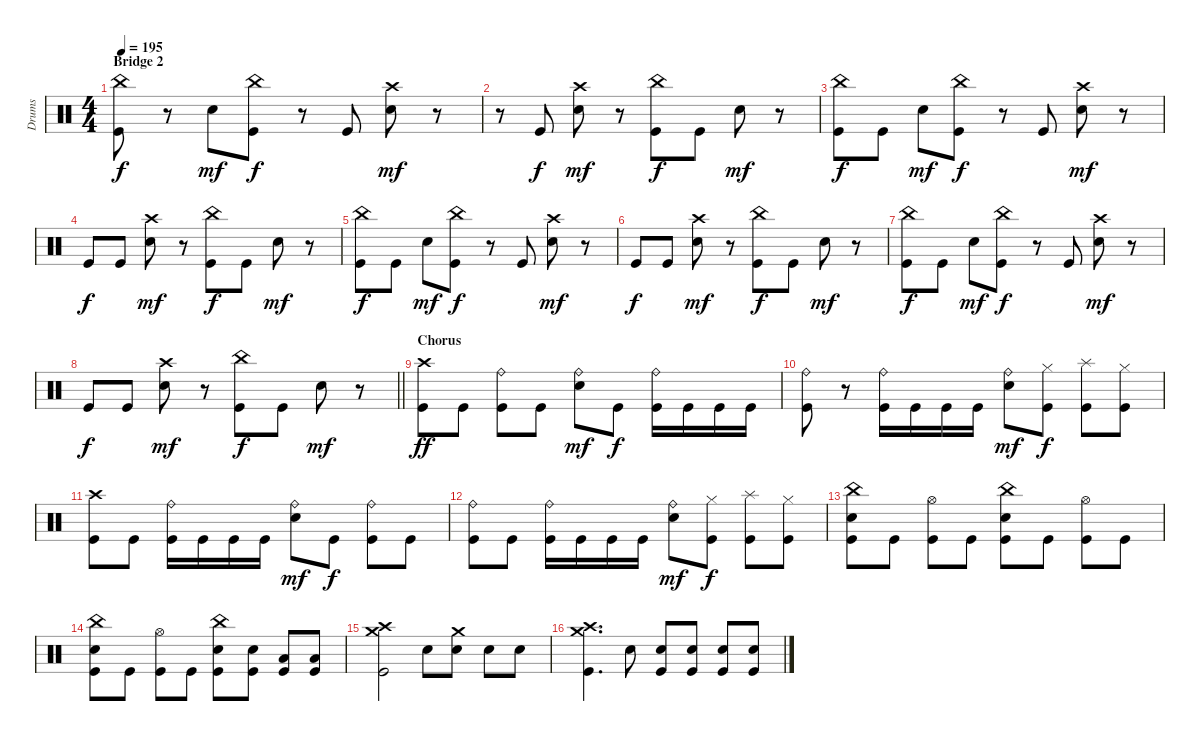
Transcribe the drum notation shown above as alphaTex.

\track ("Drums" "Drums") {instrument percussion}
\staff {score}
\articulation defaults
\ts (4 4)
\section ("" "Bridge 2")
\tempo 195
\clef neutral
\ks c
("China (hit)" "Kick (hit)").8{dy f} r.8 "Snare (hit) 2".8{dy mf} ("China (hit)" "Kick (hit)").8{dy f} r.8 "Kick (hit)".8 ("Crash high (hit)" "Snare (hit) 2").8{dy mf} r.8 |
r.8 "Kick (hit)".8{dy f} ("Crash high (hit)" "Snare (hit) 2").8{dy mf} r.8 ("China (hit)" "Kick (hit)").8{dy f} "Kick (hit)".8 "Snare (hit) 2".8{dy mf} r.8 |
("China (hit)" "Kick (hit)").8{dy f} "Kick (hit)".8 "Snare (hit) 2".8{dy mf} ("China (hit)" "Kick (hit)").8{dy f} r.8 "Kick (hit)".8 ("Crash high (hit)" "Snare (hit) 2").8{dy mf} r.8 |
"Kick (hit)".8{dy f} "Kick (hit)".8 ("Crash high (hit)" "Snare (hit) 2").8{dy mf} r.8 ("China (hit)" "Kick (hit)").8{dy f} "Kick (hit)".8 "Snare (hit) 2".8{dy mf} r.8 |
("China (hit)" "Kick (hit)").8{dy f} "Kick (hit)".8 "Snare (hit) 2".8{dy mf} ("China (hit)" "Kick (hit)").8{dy f} r.8 "Kick (hit)".8 ("Crash high (hit)" "Snare (hit) 2").8{dy mf} r.8 |
"Kick (hit)".8{dy f} "Kick (hit)".8 ("Crash high (hit)" "Snare (hit) 2").8{dy mf} r.8 ("China (hit)" "Kick (hit)").8{dy f} "Kick (hit)".8 "Snare (hit) 2".8{dy mf} r.8 |
("China (hit)" "Kick (hit)").8{dy f} "Kick (hit)".8 "Snare (hit) 2".8{dy mf} ("China (hit)" "Kick (hit)").8{dy f} r.8 "Kick (hit)".8 ("Crash high (hit)" "Snare (hit) 2").8{dy mf} r.8 |
\barLineRight lightlight "Kick (hit)".8{dy f} "Kick (hit)".8
("Crash high (hit)" "Snare (hit) 2").8{dy mf} r.8 ("China (hit)" "Kick (hit)").8{dy f} "Kick (hit)".8 "Snare (hit) 2".8{dy mf} r.8 |
\section ("" "Chorus")
("Crash high (hit)" "Kick (hit)").8{dy ff} "Kick (hit)".8 ("Ride (bell)" "Kick (hit)").8 "Kick (hit)".8 ("Ride (bell)" "Snare (hit) 2").8{dy mf} "Kick (hit)".8{dy f} ("Ride (bell)" "Kick (hit)").16 "Kick (hit)".16 "Kick (hit)".16 "Kick (hit)".16 |
("Ride (bell)" "Kick (hit)").8 r.8 ("Ride (bell)" "Kick (hit)").16 "Kick (hit)".16 "Kick (hit)".16 "Kick (hit)".16 ("Ride (bell)" "Snare (hit) 2").8{dy mf} ("Hi-Hat (closed)" "Kick (hit)").8{dy f} ("Splash (hit)" "Kick (hit)").8 ("Hi-Hat (closed)" "Kick (hit)").8 |
("Crash high (hit)" "Kick (hit)").8 "Kick (hit)".8 ("Ride (bell)" "Kick (hit)").16 "Kick (hit)".16 "Kick (hit)".16 "Kick (hit)".16 ("Ride (bell)" "Snare (hit) 2").8{dy mf} "Kick (hit)".8{dy f} ("Ride (bell)" "Kick (hit)").8 "Kick (hit)".8 |
("Ride (bell)" "Kick (hit)").8 "Kick (hit)".8 ("Ride (bell)" "Kick (hit)").16 "Kick (hit)".16 "Kick (hit)".16 "Kick (hit)".16 ("Ride (bell)" "Snare (hit) 2").8{dy mf} ("Hi-Hat (closed)" "Kick (hit)").8{dy f} ("Splash (hit)" "Kick (hit)").8 ("Hi-Hat (closed)" "Kick (hit)").8 |
("China (hit)" "Snare (hit) 2" "Kick (hit)").8 "Kick (hit)".8 ("Hi-Hat (open)" "Kick (hit)").8 "Kick (hit)".8 ("China (hit)" "Snare (hit) 2" "Kick (hit)").8 "Kick (hit)".8 ("Hi-Hat (open)" "Kick (hit)").8 "Kick (hit)".8 |
("China (hit)" "Snare (hit) 2" "Kick (hit)").8 "Kick (hit)".8 ("Hi-Hat (open)" "Kick (hit)").8 "Kick (hit)".8 ("China (hit)" "Snare (hit) 2" "Kick (hit)").8 ("Snare (hit) 2" "Kick (hit)").8 ("Low Tom (hit)" "Kick (hit)").8 ("Low Tom (hit)" "Kick (hit)").8 |
("Crash medium (hit)" "Crash high (hit)" "Kick (hit)").2 "Snare (hit) 2".8 ("Crash medium (hit)" "Snare (hit) 2").8 "Snare (hit) 2".8 "Snare (hit) 2".8 |
("Crash medium (hit)" "Crash high (hit)" "Kick (hit)").4{d} "Snare (hit) 2".8 ("Snare (hit) 2" "Kick (hit)").8 ("Snare (hit) 2" "Kick (hit)").8 ("Snare (hit) 2" "Kick (hit)").8 ("Snare (hit) 2" "Kick (hit)").8
